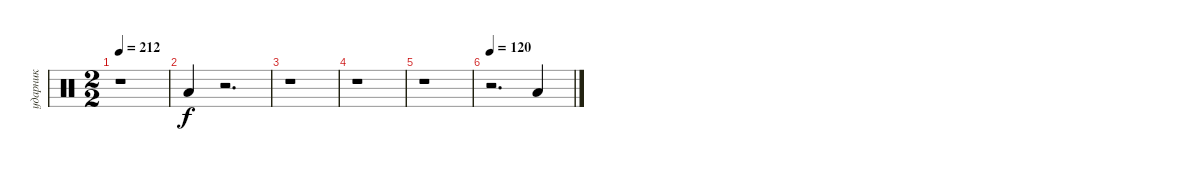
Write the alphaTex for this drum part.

\track ("ударник" "ударник") {instrument percussion}
\staff {score}
\articulation defaults
\ts (2 2)
\tempo 212
\clef neutral
\ks c
r.1{dy f} |
"Low Floor Tom (hit)".4 r.2{d} |
r.1 |
r.1 |
r.1 |
\tempo 120
r.2{d} "Low Tom (hit)".4
